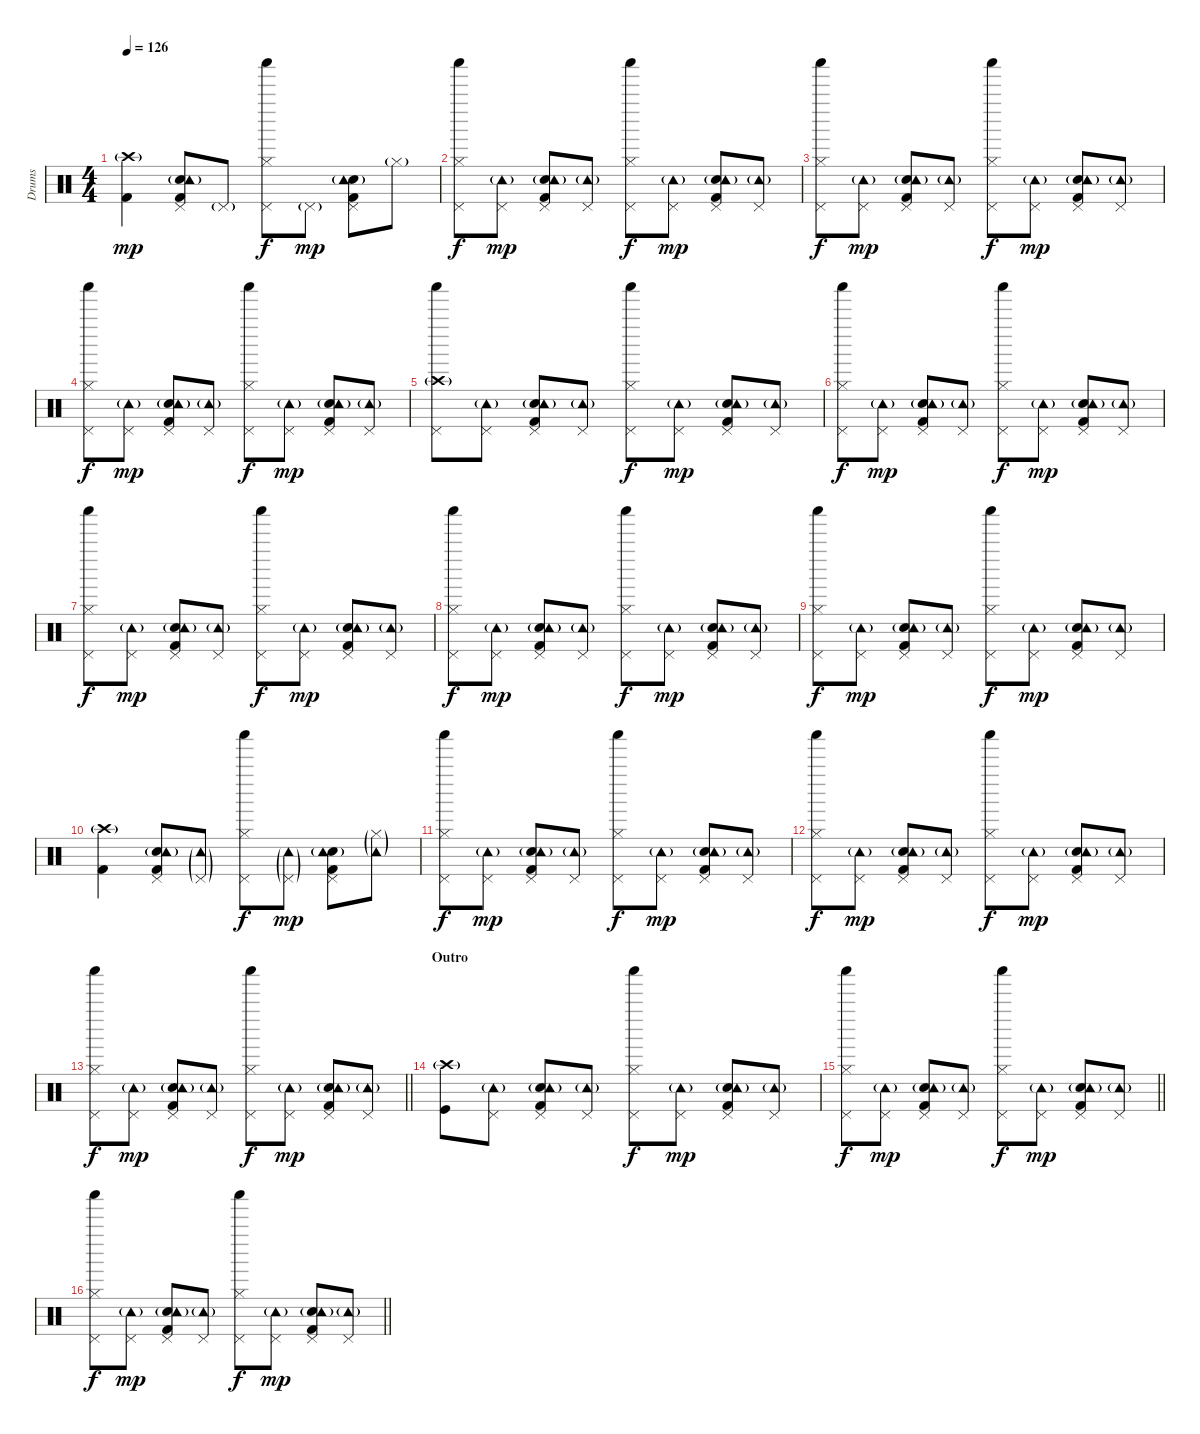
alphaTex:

\track ("Drums" "Drums") {instrument percussion}
\staff {score}
\articulation defaults
\ts (4 4)
\tempo 126
\clef neutral
\ks c
("Crash high (hit)"{g} "Kick (hit) 2").4{dy mp} ("Pedal Hi-Hat (hit)" "Electric Snare (hit)" "Kick (hit) 2" "Tambourine (hit)"{g}).8 "Pedal Hi-Hat (hit)"{g}.8 ("Hi-Hat (closed)" "Pedal Hi-Hat (hit)" "Shaker (hit)").8{dy f} "Pedal Hi-Hat (hit)"{g}.8{dy mp} ("Pedal Hi-Hat (hit)" "Electric Snare (hit)" "Kick (hit) 2" "Tambourine (hit)"{g}).8 "Hi-Hat (closed)"{g}.8 |
("Hi-Hat (closed)" "Pedal Hi-Hat (hit)" "Shaker (hit)").8{dy f} ("Pedal Hi-Hat (hit)" "Tambourine (hit)"{g}).8{dy mp} ("Pedal Hi-Hat (hit)" "Electric Snare (hit)" "Kick (hit) 2" "Tambourine (hit)"{g}).8 ("Pedal Hi-Hat (hit)" "Tambourine (hit)"{g}).8 ("Hi-Hat (closed)" "Pedal Hi-Hat (hit)" "Shaker (hit)").8{dy f} ("Pedal Hi-Hat (hit)" "Tambourine (hit)"{g}).8{dy mp} ("Pedal Hi-Hat (hit)" "Electric Snare (hit)" "Kick (hit) 2" "Tambourine (hit)"{g}).8 ("Pedal Hi-Hat (hit)" "Tambourine (hit)"{g}).8 |
("Hi-Hat (closed)" "Pedal Hi-Hat (hit)" "Shaker (hit)").8{dy f} ("Pedal Hi-Hat (hit)" "Tambourine (hit)"{g}).8{dy mp} ("Pedal Hi-Hat (hit)" "Electric Snare (hit)" "Kick (hit) 2" "Tambourine (hit)"{g}).8 ("Pedal Hi-Hat (hit)" "Tambourine (hit)"{g}).8 ("Hi-Hat (closed)" "Pedal Hi-Hat (hit)" "Shaker (hit)").8{dy f} ("Pedal Hi-Hat (hit)" "Tambourine (hit)"{g}).8{dy mp} ("Pedal Hi-Hat (hit)" "Electric Snare (hit)" "Kick (hit) 2" "Tambourine (hit)"{g}).8 ("Pedal Hi-Hat (hit)" "Tambourine (hit)"{g}).8 |
("Hi-Hat (closed)" "Pedal Hi-Hat (hit)" "Shaker (hit)").8{dy f} ("Pedal Hi-Hat (hit)" "Tambourine (hit)"{g}).8{dy mp} ("Pedal Hi-Hat (hit)" "Electric Snare (hit)" "Kick (hit) 2" "Tambourine (hit)"{g}).8 ("Pedal Hi-Hat (hit)" "Tambourine (hit)"{g}).8 ("Hi-Hat (closed)" "Pedal Hi-Hat (hit)" "Shaker (hit)").8{dy f} ("Pedal Hi-Hat (hit)" "Tambourine (hit)"{g}).8{dy mp} ("Pedal Hi-Hat (hit)" "Electric Snare (hit)" "Kick (hit) 2" "Tambourine (hit)"{g}).8 ("Pedal Hi-Hat (hit)" "Tambourine (hit)"{g}).8 |
("Crash high (hit)"{g} "Pedal Hi-Hat (hit)" "Shaker (hit)").8 ("Pedal Hi-Hat (hit)" "Tambourine (hit)"{g}).8 ("Pedal Hi-Hat (hit)" "Electric Snare (hit)" "Kick (hit) 2" "Tambourine (hit)"{g}).8 ("Pedal Hi-Hat (hit)" "Tambourine (hit)"{g}).8 ("Hi-Hat (closed)" "Pedal Hi-Hat (hit)" "Shaker (hit)").8{dy f} ("Pedal Hi-Hat (hit)" "Tambourine (hit)"{g}).8{dy mp} ("Pedal Hi-Hat (hit)" "Electric Snare (hit)" "Kick (hit) 2" "Tambourine (hit)"{g}).8 ("Pedal Hi-Hat (hit)" "Tambourine (hit)"{g}).8 |
("Hi-Hat (closed)" "Pedal Hi-Hat (hit)" "Shaker (hit)").8{dy f} ("Pedal Hi-Hat (hit)" "Tambourine (hit)"{g}).8{dy mp} ("Pedal Hi-Hat (hit)" "Electric Snare (hit)" "Kick (hit) 2" "Tambourine (hit)"{g}).8 ("Pedal Hi-Hat (hit)" "Tambourine (hit)"{g}).8 ("Hi-Hat (closed)" "Pedal Hi-Hat (hit)" "Shaker (hit)").8{dy f} ("Pedal Hi-Hat (hit)" "Tambourine (hit)"{g}).8{dy mp} ("Pedal Hi-Hat (hit)" "Electric Snare (hit)" "Kick (hit) 2" "Tambourine (hit)"{g}).8 ("Pedal Hi-Hat (hit)" "Tambourine (hit)"{g}).8 |
("Hi-Hat (closed)" "Pedal Hi-Hat (hit)" "Shaker (hit)").8{dy f} ("Pedal Hi-Hat (hit)" "Tambourine (hit)"{g}).8{dy mp} ("Pedal Hi-Hat (hit)" "Electric Snare (hit)" "Kick (hit) 2" "Tambourine (hit)"{g}).8 ("Pedal Hi-Hat (hit)" "Tambourine (hit)"{g}).8 ("Hi-Hat (closed)" "Pedal Hi-Hat (hit)" "Shaker (hit)").8{dy f} ("Pedal Hi-Hat (hit)" "Tambourine (hit)"{g}).8{dy mp} ("Pedal Hi-Hat (hit)" "Electric Snare (hit)" "Kick (hit) 2" "Tambourine (hit)"{g}).8 ("Pedal Hi-Hat (hit)" "Tambourine (hit)"{g}).8 |
("Hi-Hat (closed)" "Pedal Hi-Hat (hit)" "Shaker (hit)").8{dy f} ("Pedal Hi-Hat (hit)" "Tambourine (hit)"{g}).8{dy mp} ("Pedal Hi-Hat (hit)" "Electric Snare (hit)" "Kick (hit) 2" "Tambourine (hit)"{g}).8 ("Pedal Hi-Hat (hit)" "Tambourine (hit)"{g}).8 ("Hi-Hat (closed)" "Pedal Hi-Hat (hit)" "Shaker (hit)").8{dy f} ("Pedal Hi-Hat (hit)" "Tambourine (hit)"{g}).8{dy mp} ("Pedal Hi-Hat (hit)" "Electric Snare (hit)" "Kick (hit) 2" "Tambourine (hit)"{g}).8 ("Pedal Hi-Hat (hit)" "Tambourine (hit)"{g}).8 |
("Hi-Hat (closed)" "Pedal Hi-Hat (hit)" "Shaker (hit)").8{dy f} ("Pedal Hi-Hat (hit)" "Tambourine (hit)"{g}).8{dy mp} ("Pedal Hi-Hat (hit)" "Electric Snare (hit)" "Kick (hit) 2" "Tambourine (hit)"{g}).8 ("Pedal Hi-Hat (hit)" "Tambourine (hit)"{g}).8 ("Hi-Hat (closed)" "Pedal Hi-Hat (hit)" "Shaker (hit)").8{dy f} ("Pedal Hi-Hat (hit)" "Tambourine (hit)"{g}).8{dy mp} ("Pedal Hi-Hat (hit)" "Electric Snare (hit)" "Kick (hit) 2" "Tambourine (hit)"{g}).8 ("Pedal Hi-Hat (hit)" "Tambourine (hit)"{g}).8 |
("Crash high (hit)"{g} "Kick (hit) 2").4 ("Pedal Hi-Hat (hit)" "Electric Snare (hit)" "Kick (hit) 2" "Tambourine (hit)"{g}).8 ("Pedal Hi-Hat (hit)"{g} "Tambourine (hit)"{g}).8 ("Hi-Hat (closed)" "Pedal Hi-Hat (hit)" "Shaker (hit)").8{dy f} ("Pedal Hi-Hat (hit)"{g} "Tambourine (hit)"{g}).8{dy mp} ("Pedal Hi-Hat (hit)" "Electric Snare (hit)" "Kick (hit) 2" "Tambourine (hit)"{g}).8 ("Hi-Hat (closed)"{g} "Tambourine (hit)"{g}).8 |
("Hi-Hat (closed)" "Pedal Hi-Hat (hit)" "Shaker (hit)").8{dy f} ("Pedal Hi-Hat (hit)" "Tambourine (hit)"{g}).8{dy mp} ("Pedal Hi-Hat (hit)" "Electric Snare (hit)" "Kick (hit) 2" "Tambourine (hit)"{g}).8 ("Pedal Hi-Hat (hit)" "Tambourine (hit)"{g}).8 ("Hi-Hat (closed)" "Pedal Hi-Hat (hit)" "Shaker (hit)").8{dy f} ("Pedal Hi-Hat (hit)" "Tambourine (hit)"{g}).8{dy mp} ("Pedal Hi-Hat (hit)" "Electric Snare (hit)" "Kick (hit) 2" "Tambourine (hit)"{g}).8 ("Pedal Hi-Hat (hit)" "Tambourine (hit)"{g}).8 |
("Hi-Hat (closed)" "Pedal Hi-Hat (hit)" "Shaker (hit)").8{dy f} ("Pedal Hi-Hat (hit)" "Tambourine (hit)"{g}).8{dy mp} ("Pedal Hi-Hat (hit)" "Electric Snare (hit)" "Kick (hit) 2" "Tambourine (hit)"{g}).8 ("Pedal Hi-Hat (hit)" "Tambourine (hit)"{g}).8 ("Hi-Hat (closed)" "Pedal Hi-Hat (hit)" "Shaker (hit)").8{dy f} ("Pedal Hi-Hat (hit)" "Tambourine (hit)"{g}).8{dy mp} ("Pedal Hi-Hat (hit)" "Electric Snare (hit)" "Kick (hit) 2" "Tambourine (hit)"{g}).8 ("Pedal Hi-Hat (hit)" "Tambourine (hit)"{g}).8 |
\barLineRight lightlight
("Hi-Hat (closed)" "Pedal Hi-Hat (hit)" "Shaker (hit)").8{dy f} ("Pedal Hi-Hat (hit)" "Tambourine (hit)"{g}).8{dy mp} ("Pedal Hi-Hat (hit)" "Electric Snare (hit)" "Kick (hit) 2" "Tambourine (hit)"{g}).8 ("Pedal Hi-Hat (hit)" "Tambourine (hit)"{g}).8 ("Hi-Hat (closed)" "Pedal Hi-Hat (hit)" "Shaker (hit)").8{dy f} ("Pedal Hi-Hat (hit)" "Tambourine (hit)"{g}).8{dy mp} ("Pedal Hi-Hat (hit)" "Electric Snare (hit)" "Kick (hit) 2" "Tambourine (hit)"{g}).8 ("Pedal Hi-Hat (hit)" "Tambourine (hit)"{g}).8 |
\section ("" "Outro")
("Crash high (hit)"{g} "Kick (hit)").8 ("Pedal Hi-Hat (hit)" "Tambourine (hit)"{g}).8 ("Pedal Hi-Hat (hit)" "Electric Snare (hit)" "Kick (hit) 2" "Tambourine (hit)"{g}).8 ("Pedal Hi-Hat (hit)" "Tambourine (hit)"{g}).8 ("Hi-Hat (closed)" "Pedal Hi-Hat (hit)" "Shaker (hit)").8{dy f} ("Pedal Hi-Hat (hit)" "Tambourine (hit)"{g}).8{dy mp} ("Pedal Hi-Hat (hit)" "Electric Snare (hit)" "Kick (hit) 2" "Tambourine (hit)"{g}).8 ("Pedal Hi-Hat (hit)" "Tambourine (hit)"{g}).8 |
\barLineRight lightlight
("Hi-Hat (closed)" "Pedal Hi-Hat (hit)" "Shaker (hit)").8{dy f} ("Pedal Hi-Hat (hit)" "Tambourine (hit)"{g}).8{dy mp} ("Pedal Hi-Hat (hit)" "Electric Snare (hit)" "Kick (hit) 2" "Tambourine (hit)"{g}).8 ("Pedal Hi-Hat (hit)" "Tambourine (hit)"{g}).8 ("Hi-Hat (closed)" "Pedal Hi-Hat (hit)" "Shaker (hit)").8{dy f} ("Pedal Hi-Hat (hit)" "Tambourine (hit)"{g}).8{dy mp} ("Pedal Hi-Hat (hit)" "Electric Snare (hit)" "Kick (hit) 2" "Tambourine (hit)"{g}).8 ("Pedal Hi-Hat (hit)" "Tambourine (hit)"{g}).8 |
\barLineRight lightlight
("Hi-Hat (closed)" "Pedal Hi-Hat (hit)" "Shaker (hit)").8{dy f} ("Pedal Hi-Hat (hit)" "Tambourine (hit)"{g}).8{dy mp} ("Pedal Hi-Hat (hit)" "Electric Snare (hit)" "Kick (hit) 2" "Tambourine (hit)"{g}).8 ("Pedal Hi-Hat (hit)" "Tambourine (hit)"{g}).8 ("Hi-Hat (closed)" "Pedal Hi-Hat (hit)" "Shaker (hit)").8{dy f} ("Pedal Hi-Hat (hit)" "Tambourine (hit)"{g}).8{dy mp} ("Pedal Hi-Hat (hit)" "Electric Snare (hit)" "Kick (hit) 2" "Tambourine (hit)"{g}).8 ("Pedal Hi-Hat (hit)" "Tambourine (hit)"{g}).8
